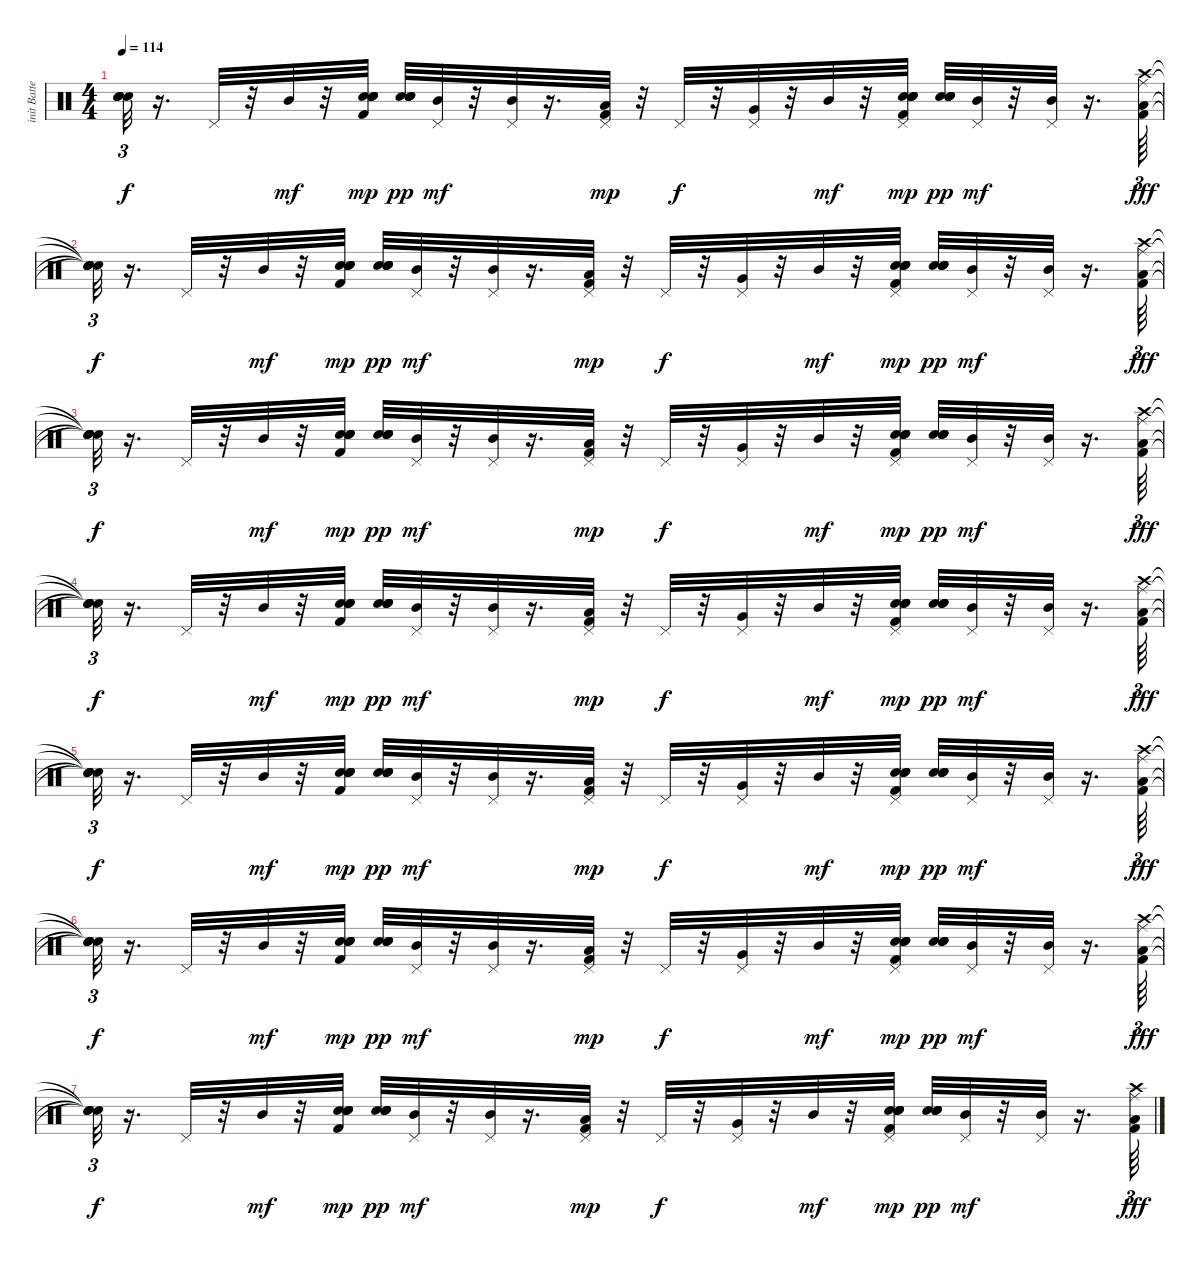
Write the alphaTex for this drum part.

\track ("init Batterie" "init Batte") {instrument percussion}
\staff {score}
\articulation defaults
\ts (4 4)
\tempo 114
\clef neutral
\ks c
("Snare (hit)"{t} "Snare (hit)"{t} "Snare (hit)"{t} "Snare (hit)"{t}).32{tu (3 2) dy f} r.16{d} "Pedal Hi-Hat (hit)".32 r.32 "Mid Tom (hit)".32{dy mf} r.32 ("Snare (hit) 2" "Hand Clap (hit)" "Kick (hit) 2" "Snare (hit) 2" "Hand Clap (hit)").32{dy mp} ("Snare (hit) 2" "Snare (hit) 2" "Hand Clap (hit)" "Hand Clap (hit)").32{dy pp} ("Pedal Hi-Hat (hit)" "Mid Tom (hit)").32{dy mf} r.32 ("Pedal Hi-Hat (hit)" "Mid Tom (hit)").32 r.16{d} ("Kick (hit) 2" "Pedal Hi-Hat (hit)" "Low Tom (hit)").32{dy mp} r.32 "Pedal Hi-Hat (hit)".32{dy f} r.32 ("Very Low Tom (hit)" "Pedal Hi-Hat (hit)").32 r.32 "Mid Tom (hit)".32{dy mf} r.32 ("Snare (hit) 2" "Hand Clap (hit)" "Kick (hit) 2" "Snare (hit) 2" "Hand Clap (hit)" "Pedal Hi-Hat (hit)").32{dy mp} ("Snare (hit) 2" "Snare (hit) 2" "Hand Clap (hit)" "Hand Clap (hit)").32{dy pp} ("Pedal Hi-Hat (hit)" "Mid Tom (hit)").32{dy mf} r.32 ("Pedal Hi-Hat (hit)" "Mid Tom (hit)").32 r.16{d} ("Kick (hit) 2" "Low Tom (hit)" "Crash high (hit)" "Ride (middle)").64{tu (3 2) dy fff} |
("Snare (hit)"{t} "Snare (hit)"{t} "Snare (hit)"{t} "Snare (hit)"{t}).32{tu (3 2) dy f} r.16{d} "Pedal Hi-Hat (hit)".32 r.32 "Mid Tom (hit)".32{dy mf} r.32 ("Snare (hit) 2" "Hand Clap (hit)" "Kick (hit) 2" "Snare (hit) 2" "Hand Clap (hit)").32{dy mp} ("Snare (hit) 2" "Snare (hit) 2" "Hand Clap (hit)" "Hand Clap (hit)").32{dy pp} ("Pedal Hi-Hat (hit)" "Mid Tom (hit)").32{dy mf} r.32 ("Pedal Hi-Hat (hit)" "Mid Tom (hit)").32 r.16{d} ("Kick (hit) 2" "Pedal Hi-Hat (hit)" "Low Tom (hit)").32{dy mp} r.32 "Pedal Hi-Hat (hit)".32{dy f} r.32 ("Very Low Tom (hit)" "Pedal Hi-Hat (hit)").32 r.32 "Mid Tom (hit)".32{dy mf} r.32 ("Snare (hit) 2" "Hand Clap (hit)" "Kick (hit) 2" "Snare (hit) 2" "Hand Clap (hit)" "Pedal Hi-Hat (hit)").32{dy mp} ("Snare (hit) 2" "Snare (hit) 2" "Hand Clap (hit)" "Hand Clap (hit)").32{dy pp} ("Pedal Hi-Hat (hit)" "Mid Tom (hit)").32{dy mf} r.32 ("Pedal Hi-Hat (hit)" "Mid Tom (hit)").32 r.16{d} ("Kick (hit) 2" "Low Tom (hit)" "Crash high (hit)" "Ride (middle)").64{tu (3 2) dy fff} |
("Snare (hit)"{t} "Snare (hit)"{t} "Snare (hit)"{t} "Snare (hit)"{t}).32{tu (3 2) dy f} r.16{d} "Pedal Hi-Hat (hit)".32 r.32 "Mid Tom (hit)".32{dy mf} r.32 ("Snare (hit) 2" "Hand Clap (hit)" "Kick (hit) 2" "Snare (hit) 2" "Hand Clap (hit)").32{dy mp} ("Snare (hit) 2" "Snare (hit) 2" "Hand Clap (hit)" "Hand Clap (hit)").32{dy pp} ("Pedal Hi-Hat (hit)" "Mid Tom (hit)").32{dy mf} r.32 ("Pedal Hi-Hat (hit)" "Mid Tom (hit)").32 r.16{d} ("Kick (hit) 2" "Pedal Hi-Hat (hit)" "Low Tom (hit)").32{dy mp} r.32 "Pedal Hi-Hat (hit)".32{dy f} r.32 ("Very Low Tom (hit)" "Pedal Hi-Hat (hit)").32 r.32 "Mid Tom (hit)".32{dy mf} r.32 ("Snare (hit) 2" "Hand Clap (hit)" "Kick (hit) 2" "Snare (hit) 2" "Hand Clap (hit)" "Pedal Hi-Hat (hit)").32{dy mp} ("Snare (hit) 2" "Snare (hit) 2" "Hand Clap (hit)" "Hand Clap (hit)").32{dy pp} ("Pedal Hi-Hat (hit)" "Mid Tom (hit)").32{dy mf} r.32 ("Pedal Hi-Hat (hit)" "Mid Tom (hit)").32 r.16{d} ("Kick (hit) 2" "Low Tom (hit)" "Crash high (hit)" "Ride (middle)").64{tu (3 2) dy fff} |
("Snare (hit)"{t} "Snare (hit)"{t} "Snare (hit)"{t} "Snare (hit)"{t}).32{tu (3 2) dy f} r.16{d} "Pedal Hi-Hat (hit)".32 r.32 "Mid Tom (hit)".32{dy mf} r.32 ("Snare (hit) 2" "Hand Clap (hit)" "Kick (hit) 2" "Snare (hit) 2" "Hand Clap (hit)").32{dy mp} ("Snare (hit) 2" "Snare (hit) 2" "Hand Clap (hit)" "Hand Clap (hit)").32{dy pp} ("Pedal Hi-Hat (hit)" "Mid Tom (hit)").32{dy mf} r.32 ("Pedal Hi-Hat (hit)" "Mid Tom (hit)").32 r.16{d} ("Kick (hit) 2" "Pedal Hi-Hat (hit)" "Low Tom (hit)").32{dy mp} r.32 "Pedal Hi-Hat (hit)".32{dy f} r.32 ("Very Low Tom (hit)" "Pedal Hi-Hat (hit)").32 r.32 "Mid Tom (hit)".32{dy mf} r.32 ("Snare (hit) 2" "Hand Clap (hit)" "Kick (hit) 2" "Snare (hit) 2" "Hand Clap (hit)" "Pedal Hi-Hat (hit)").32{dy mp} ("Snare (hit) 2" "Snare (hit) 2" "Hand Clap (hit)" "Hand Clap (hit)").32{dy pp} ("Pedal Hi-Hat (hit)" "Mid Tom (hit)").32{dy mf} r.32 ("Pedal Hi-Hat (hit)" "Mid Tom (hit)").32 r.16{d} ("Kick (hit) 2" "Low Tom (hit)" "Crash high (hit)" "Ride (middle)").64{tu (3 2) dy fff} |
("Snare (hit)"{t} "Snare (hit)"{t} "Snare (hit)"{t} "Snare (hit)"{t}).32{tu (3 2) dy f} r.16{d} "Pedal Hi-Hat (hit)".32 r.32 "Mid Tom (hit)".32{dy mf} r.32 ("Snare (hit) 2" "Hand Clap (hit)" "Kick (hit) 2" "Snare (hit) 2" "Hand Clap (hit)").32{dy mp} ("Snare (hit) 2" "Snare (hit) 2" "Hand Clap (hit)" "Hand Clap (hit)").32{dy pp} ("Pedal Hi-Hat (hit)" "Mid Tom (hit)").32{dy mf} r.32 ("Pedal Hi-Hat (hit)" "Mid Tom (hit)").32 r.16{d} ("Kick (hit) 2" "Pedal Hi-Hat (hit)" "Low Tom (hit)").32{dy mp} r.32 "Pedal Hi-Hat (hit)".32{dy f} r.32 ("Very Low Tom (hit)" "Pedal Hi-Hat (hit)").32 r.32 "Mid Tom (hit)".32{dy mf} r.32 ("Snare (hit) 2" "Hand Clap (hit)" "Kick (hit) 2" "Snare (hit) 2" "Hand Clap (hit)" "Pedal Hi-Hat (hit)").32{dy mp} ("Snare (hit) 2" "Snare (hit) 2" "Hand Clap (hit)" "Hand Clap (hit)").32{dy pp} ("Pedal Hi-Hat (hit)" "Mid Tom (hit)").32{dy mf} r.32 ("Pedal Hi-Hat (hit)" "Mid Tom (hit)").32 r.16{d} ("Kick (hit) 2" "Low Tom (hit)" "Crash high (hit)" "Ride (middle)").64{tu (3 2) dy fff} |
("Snare (hit)"{t} "Snare (hit)"{t} "Snare (hit)"{t} "Snare (hit)"{t}).32{tu (3 2) dy f} r.16{d} "Pedal Hi-Hat (hit)".32 r.32 "Mid Tom (hit)".32{dy mf} r.32 ("Snare (hit) 2" "Hand Clap (hit)" "Kick (hit) 2" "Snare (hit) 2" "Hand Clap (hit)").32{dy mp} ("Snare (hit) 2" "Snare (hit) 2" "Hand Clap (hit)" "Hand Clap (hit)").32{dy pp} ("Pedal Hi-Hat (hit)" "Mid Tom (hit)").32{dy mf} r.32 ("Pedal Hi-Hat (hit)" "Mid Tom (hit)").32 r.16{d} ("Kick (hit) 2" "Pedal Hi-Hat (hit)" "Low Tom (hit)").32{dy mp} r.32 "Pedal Hi-Hat (hit)".32{dy f} r.32 ("Very Low Tom (hit)" "Pedal Hi-Hat (hit)").32 r.32 "Mid Tom (hit)".32{dy mf} r.32 ("Snare (hit) 2" "Hand Clap (hit)" "Kick (hit) 2" "Snare (hit) 2" "Hand Clap (hit)" "Pedal Hi-Hat (hit)").32{dy mp} ("Snare (hit) 2" "Snare (hit) 2" "Hand Clap (hit)" "Hand Clap (hit)").32{dy pp} ("Pedal Hi-Hat (hit)" "Mid Tom (hit)").32{dy mf} r.32 ("Pedal Hi-Hat (hit)" "Mid Tom (hit)").32 r.16{d} ("Kick (hit) 2" "Low Tom (hit)" "Crash high (hit)" "Ride (middle)").64{tu (3 2) dy fff} |
("Snare (hit)"{t} "Snare (hit)"{t} "Snare (hit)"{t} "Snare (hit)"{t}).32{tu (3 2) dy f} r.16{d} "Pedal Hi-Hat (hit)".32 r.32 "Mid Tom (hit)".32{dy mf} r.32 ("Snare (hit) 2" "Hand Clap (hit)" "Kick (hit) 2" "Snare (hit) 2" "Hand Clap (hit)").32{dy mp} ("Snare (hit) 2" "Snare (hit) 2" "Hand Clap (hit)" "Hand Clap (hit)").32{dy pp} ("Pedal Hi-Hat (hit)" "Mid Tom (hit)").32{dy mf} r.32 ("Pedal Hi-Hat (hit)" "Mid Tom (hit)").32 r.16{d} ("Kick (hit) 2" "Pedal Hi-Hat (hit)" "Low Tom (hit)").32{dy mp} r.32 "Pedal Hi-Hat (hit)".32{dy f} r.32 ("Very Low Tom (hit)" "Pedal Hi-Hat (hit)").32 r.32 "Mid Tom (hit)".32{dy mf} r.32 ("Snare (hit) 2" "Hand Clap (hit)" "Kick (hit) 2" "Snare (hit) 2" "Hand Clap (hit)" "Pedal Hi-Hat (hit)").32{dy mp} ("Snare (hit) 2" "Snare (hit) 2" "Hand Clap (hit)" "Hand Clap (hit)").32{dy pp} ("Pedal Hi-Hat (hit)" "Mid Tom (hit)").32{dy mf} r.32 ("Pedal Hi-Hat (hit)" "Mid Tom (hit)").32 r.16{d} ("Kick (hit) 2" "Low Tom (hit)" "Crash high (hit)" "Ride (middle)").64{tu (3 2) dy fff}
